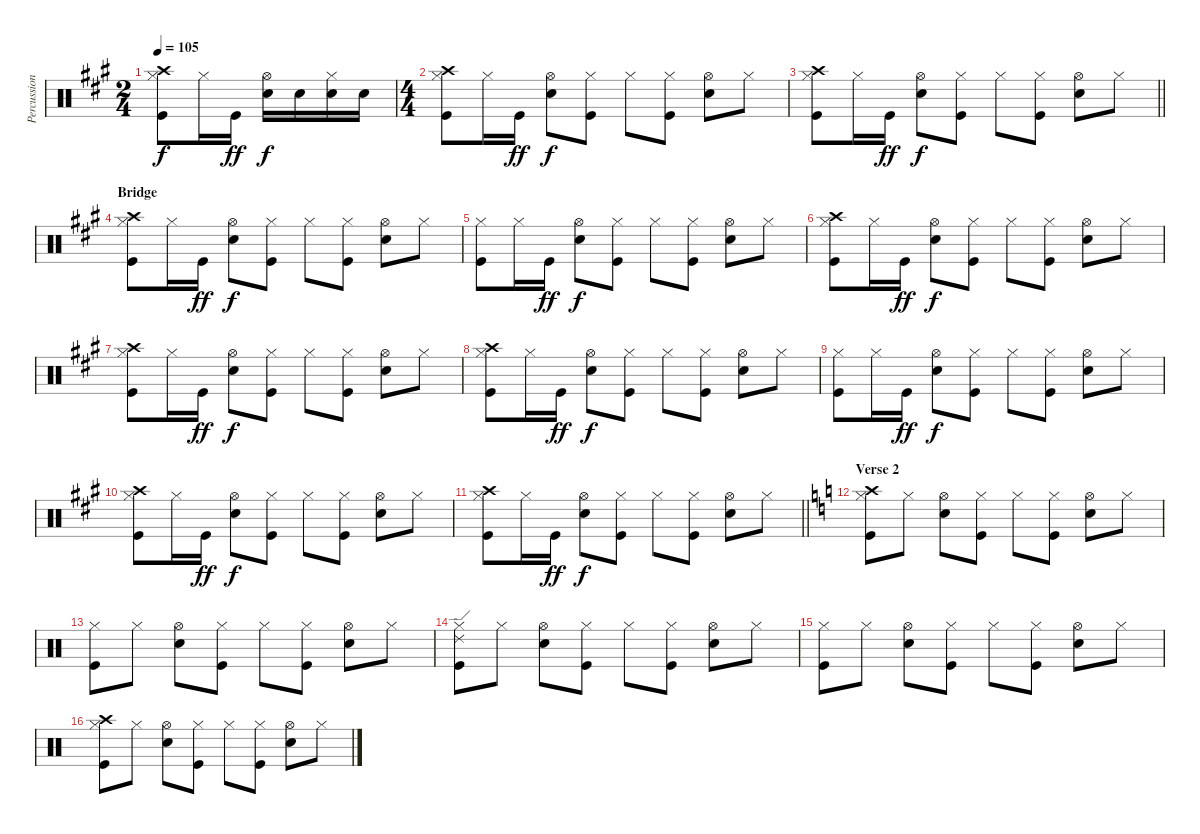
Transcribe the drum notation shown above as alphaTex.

\track ("Percussion" "Percussion") {instrument percussion}
\staff {score}
\articulation defaults
\ts (2 4)
\tempo 105
\clef neutral
\ks a
("Hi-Hat (closed)" "Crash high (hit)" "Kick (hit)").8{dy f} "Hi-Hat (closed)".16 "Kick (hit)".16{dy ff} ("Hi-Hat (open)" "Snare (hit) 2").16{dy f} "Snare (hit) 2".16 ("Hi-Hat (closed)" "Snare (hit) 2").16 "Snare (hit) 2".16 |
\ts (4 4)
("Hi-Hat (closed)" "Crash high (hit)" "Kick (hit)").8 "Hi-Hat (closed)".16 "Kick (hit)".16{dy ff} ("Hi-Hat (open)" "Snare (hit) 2").8{dy f} ("Hi-Hat (closed)" "Kick (hit)").8 "Hi-Hat (closed)".8 ("Hi-Hat (closed)" "Kick (hit)").8 ("Hi-Hat (open)" "Snare (hit) 2").8 "Hi-Hat (closed)".8 |
\barLineRight lightlight
("Hi-Hat (closed)" "Crash high (hit)" "Kick (hit)").8 "Hi-Hat (closed)".16 "Kick (hit)".16{dy ff} ("Hi-Hat (open)" "Snare (hit) 2").8{dy f} ("Hi-Hat (closed)" "Kick (hit)").8 "Hi-Hat (closed)".8 ("Hi-Hat (closed)" "Kick (hit)").8 ("Hi-Hat (open)" "Snare (hit) 2").8 "Hi-Hat (closed)".8 |
\section ("" "Bridge")
("Hi-Hat (closed)" "Crash high (hit)" "Kick (hit)").8 "Hi-Hat (closed)".16 "Kick (hit)".16{dy ff} ("Hi-Hat (open)" "Snare (hit) 2").8{dy f} ("Hi-Hat (closed)" "Kick (hit)").8 "Hi-Hat (closed)".8 ("Hi-Hat (closed)" "Kick (hit)").8 ("Hi-Hat (open)" "Snare (hit) 2").8 "Hi-Hat (closed)".8 |
("Hi-Hat (closed)" "Kick (hit)").8 "Hi-Hat (closed)".16 "Kick (hit)".16{dy ff} ("Hi-Hat (open)" "Snare (hit) 2").8{dy f} ("Hi-Hat (closed)" "Kick (hit)").8 "Hi-Hat (closed)".8 ("Hi-Hat (closed)" "Kick (hit)").8 ("Hi-Hat (open)" "Snare (hit) 2").8 "Hi-Hat (closed)".8 |
("Hi-Hat (closed)" "Crash high (hit)" "Kick (hit)").8 "Hi-Hat (closed)".16 "Kick (hit)".16{dy ff} ("Hi-Hat (open)" "Snare (hit) 2").8{dy f} ("Hi-Hat (closed)" "Kick (hit)").8 "Hi-Hat (closed)".8 ("Hi-Hat (closed)" "Kick (hit)").8 ("Hi-Hat (open)" "Snare (hit) 2").8 "Hi-Hat (closed)".8 |
("Hi-Hat (closed)" "Crash high (hit)" "Kick (hit)").8 "Hi-Hat (closed)".16 "Kick (hit)".16{dy ff} ("Hi-Hat (open)" "Snare (hit) 2").8{dy f} ("Hi-Hat (closed)" "Kick (hit)").8 "Hi-Hat (closed)".8 ("Hi-Hat (closed)" "Kick (hit)").8 ("Hi-Hat (open)" "Snare (hit) 2").8 "Hi-Hat (closed)".8 |
("Hi-Hat (closed)" "Crash high (hit)" "Kick (hit)").8 "Hi-Hat (closed)".16 "Kick (hit)".16{dy ff} ("Hi-Hat (open)" "Snare (hit) 2").8{dy f} ("Hi-Hat (closed)" "Kick (hit)").8 "Hi-Hat (closed)".8 ("Hi-Hat (closed)" "Kick (hit)").8 ("Hi-Hat (open)" "Snare (hit) 2").8 "Hi-Hat (closed)".8 |
("Hi-Hat (closed)" "Kick (hit)").8 "Hi-Hat (closed)".16 "Kick (hit)".16{dy ff} ("Hi-Hat (open)" "Snare (hit) 2").8{dy f} ("Hi-Hat (closed)" "Kick (hit)").8 "Hi-Hat (closed)".8 ("Hi-Hat (closed)" "Kick (hit)").8 ("Hi-Hat (open)" "Snare (hit) 2").8 "Hi-Hat (closed)".8 |
("Hi-Hat (closed)" "Crash high (hit)" "Kick (hit)").8 "Hi-Hat (closed)".16 "Kick (hit)".16{dy ff} ("Hi-Hat (open)" "Snare (hit) 2").8{dy f} ("Hi-Hat (closed)" "Kick (hit)").8 "Hi-Hat (closed)".8 ("Hi-Hat (closed)" "Kick (hit)").8 ("Hi-Hat (open)" "Snare (hit) 2").8 "Hi-Hat (closed)".8 |
\barLineRight lightlight
("Hi-Hat (closed)" "Crash high (hit)" "Kick (hit)").8 "Hi-Hat (closed)".16 "Kick (hit)".16{dy ff} ("Hi-Hat (open)" "Snare (hit) 2").8{dy f} ("Hi-Hat (closed)" "Kick (hit)").8 "Hi-Hat (closed)".8 ("Hi-Hat (closed)" "Kick (hit)").8 ("Hi-Hat (open)" "Snare (hit) 2").8 "Hi-Hat (closed)".8 |
\section ("" "Verse 2")
\ks c
("Hi-Hat (closed)" "Crash high (hit)" "Kick (hit)").8 "Hi-Hat (closed)".8 ("Hi-Hat (open)" "Snare (hit) 2").8 ("Hi-Hat (closed)" "Kick (hit)").8 "Hi-Hat (closed)".8 ("Hi-Hat (closed)" "Kick (hit)").8 ("Hi-Hat (open)" "Snare (hit) 2").8 "Hi-Hat (closed)".8 |
("Hi-Hat (closed)" "Kick (hit)").8 "Hi-Hat (closed)".8 ("Hi-Hat (open)" "Snare (hit) 2").8 ("Hi-Hat (closed)" "Kick (hit)").8 "Hi-Hat (closed)".8 ("Hi-Hat (closed)" "Kick (hit)").8 ("Hi-Hat (open)" "Snare (hit) 2").8 "Hi-Hat (closed)".8 |
("Hi-Hat (closed)" "Kick (hit)" "Ride (edge) 2").8 "Hi-Hat (closed)".8 ("Hi-Hat (open)" "Snare (hit) 2").8 ("Hi-Hat (closed)" "Kick (hit)").8 "Hi-Hat (closed)".8 ("Hi-Hat (closed)" "Kick (hit)").8 ("Hi-Hat (open)" "Snare (hit) 2").8 "Hi-Hat (closed)".8 |
("Hi-Hat (closed)" "Kick (hit)").8 "Hi-Hat (closed)".8 ("Hi-Hat (open)" "Snare (hit) 2").8 ("Hi-Hat (closed)" "Kick (hit)").8 "Hi-Hat (closed)".8 ("Hi-Hat (closed)" "Kick (hit)").8 ("Hi-Hat (open)" "Snare (hit) 2").8 "Hi-Hat (closed)".8 |
("Hi-Hat (closed)" "Crash high (hit)" "Kick (hit)").8 "Hi-Hat (closed)".8 ("Hi-Hat (open)" "Snare (hit) 2").8 ("Hi-Hat (closed)" "Kick (hit)").8 "Hi-Hat (closed)".8 ("Hi-Hat (closed)" "Kick (hit)").8 ("Hi-Hat (open)" "Snare (hit) 2").8 "Hi-Hat (closed)".8
